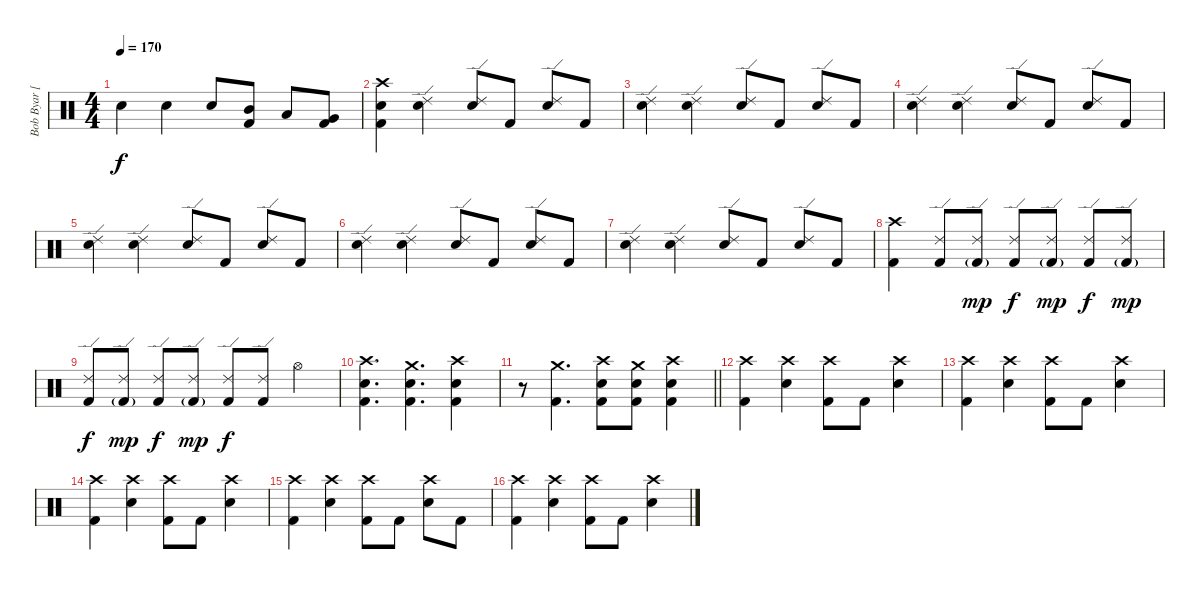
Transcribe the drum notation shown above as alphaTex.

\track ("Bob Byar [Drums]" "Bob Byar [") {instrument percussion}
\staff {score}
\articulation defaults
\ts (4 4)
\tempo 170
\clef neutral
\ks c "Electric Snare (hit)".4{dy f} "Electric Snare (hit)".4 "Electric Snare (hit)".8
("Mid Tom (hit)" "Kick (hit) 2").8 "Low Tom (hit)".8 ("Very Low Tom (hit)" "Kick (hit) 2").8 |
("Crash high (hit)" "Electric Snare (hit)" "Kick (hit) 2").4 ("Ride (edge) 2" "Electric Snare (hit)").4 ("Ride (edge) 2" "Electric Snare (hit)").8 "Kick (hit) 2".8 ("Ride (edge) 2" "Electric Snare (hit)").8 "Kick (hit) 2".8 |
("Ride (edge) 2" "Electric Snare (hit)").4 ("Ride (edge) 2" "Electric Snare (hit)").4 ("Ride (edge) 2" "Electric Snare (hit)").8 "Kick (hit) 2".8 ("Ride (edge) 2" "Electric Snare (hit)").8 "Kick (hit) 2".8 |
("Ride (edge) 2" "Electric Snare (hit)").4 ("Ride (edge) 2" "Electric Snare (hit)").4 ("Ride (edge) 2" "Electric Snare (hit)").8 "Kick (hit) 2".8 ("Ride (edge) 2" "Electric Snare (hit)").8 "Kick (hit) 2".8 |
("Ride (edge) 2" "Electric Snare (hit)").4 ("Ride (edge) 2" "Electric Snare (hit)").4 ("Ride (edge) 2" "Electric Snare (hit)").8 "Kick (hit) 2".8 ("Ride (edge) 2" "Electric Snare (hit)").8 "Kick (hit) 2".8 |
("Ride (edge) 2" "Electric Snare (hit)").4 ("Ride (edge) 2" "Electric Snare (hit)").4 ("Ride (edge) 2" "Electric Snare (hit)").8 "Kick (hit) 2".8 ("Ride (edge) 2" "Electric Snare (hit)").8 "Kick (hit) 2".8 |
("Ride (edge) 2" "Electric Snare (hit)").4 ("Ride (edge) 2" "Electric Snare (hit)").4 ("Ride (edge) 2" "Electric Snare (hit)").8 "Kick (hit) 2".8 ("Ride (edge) 2" "Electric Snare (hit)").8 "Kick (hit) 2".8 |
("Crash high (hit)" "Kick (hit) 2").4 ("Ride (edge) 2" "Kick (hit) 2").8{volume 8} ("Ride (edge) 2" "Kick (hit) 2"{g}).8{dy mp volume 15} ("Ride (edge) 2" "Kick (hit) 2").8{dy f} ("Ride (edge) 2" "Kick (hit) 2"{g}).8{dy mp} ("Ride (edge) 2" "Kick (hit) 2").8{dy f} ("Ride (edge) 2" "Kick (hit) 2"{g}).8{dy mp} |
("Ride (edge) 2" "Kick (hit) 2").8{dy f} ("Ride (edge) 2" "Kick (hit) 2"{g}).8{dy mp} ("Ride (edge) 2" "Kick (hit) 2").8{dy f} ("Ride (edge) 2" "Kick (hit) 2"{g}).8{dy mp} ("Ride (edge) 2" "Kick (hit) 2").8{dy f} ("Ride (edge) 2" "Kick (hit) 2").8 "Hi-Hat (open)".4 |
("Crash high (hit)" "Electric Snare (hit)" "Kick (hit) 2").4{d} ("Crash medium (hit)" "Electric Snare (hit)" "Kick (hit) 2").4{d} ("Crash high (hit)" "Electric Snare (hit)" "Kick (hit) 2").4 |
\barLineRight lightlight
r.8 ("Crash medium (hit)" "Kick (hit) 2").4{d} ("Crash high (hit)" "Electric Snare (hit)" "Kick (hit) 2").8 ("Crash medium (hit)" "Electric Snare (hit)" "Kick (hit) 2").8 ("Crash high (hit)" "Electric Snare (hit)" "Kick (hit) 2").4 |
("Crash high (hit)" "Kick (hit) 2").4 ("Crash high (hit)" "Electric Snare (hit)").4 ("Crash high (hit)" "Kick (hit) 2").8 "Kick (hit) 2".8 ("Crash high (hit)" "Electric Snare (hit)").4 |
("Crash high (hit)" "Kick (hit) 2").4 ("Crash high (hit)" "Electric Snare (hit)").4 ("Crash high (hit)" "Kick (hit) 2").8 "Kick (hit) 2".8 ("Crash high (hit)" "Electric Snare (hit)").4 |
("Crash high (hit)" "Kick (hit) 2").4 ("Crash high (hit)" "Electric Snare (hit)").4 ("Crash high (hit)" "Kick (hit) 2").8 "Kick (hit) 2".8 ("Crash high (hit)" "Electric Snare (hit)").4 |
("Crash high (hit)" "Kick (hit) 2").4 ("Crash high (hit)" "Electric Snare (hit)").4 ("Crash high (hit)" "Kick (hit) 2").8 "Kick (hit) 2".8 ("Crash high (hit)" "Electric Snare (hit)").8 "Kick (hit) 2".8 |
("Crash high (hit)" "Kick (hit) 2").4 ("Crash high (hit)" "Electric Snare (hit)").4 ("Crash high (hit)" "Kick (hit) 2").8 "Kick (hit) 2".8 ("Crash high (hit)" "Electric Snare (hit)").4
